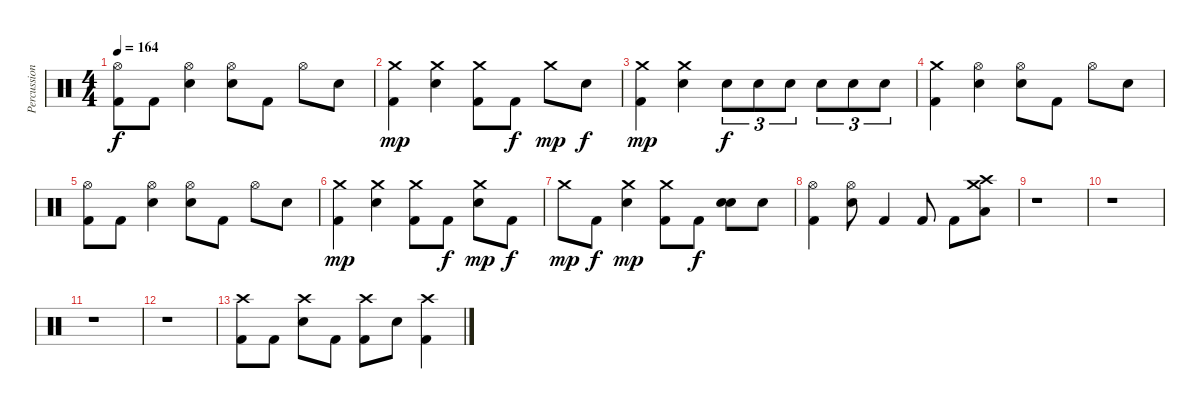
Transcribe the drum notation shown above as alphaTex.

\track ("Percussions" "Percussion") {instrument percussion}
\staff {score}
\articulation defaults
\ts (4 4)
\tempo 164
\clef neutral
\ks c
("Kick (hit) 2" "Hi-Hat (open)").8{dy f} "Kick (hit) 2".8 ("Snare (hit) 2" "Hi-Hat (open)").4 ("Snare (hit) 2" "Hi-Hat (open)").8 "Kick (hit) 2".8 "Hi-Hat (open)".8 "Snare (hit) 2".8 |
("Kick (hit) 2" "Crash medium (hit)").4{dy mp} ("Snare (hit) 2" "Crash medium (hit)").4 ("Kick (hit) 2" "Crash medium (hit)").8 "Kick (hit) 2".8{dy f} "Crash medium (hit)".8{dy mp} "Snare (hit) 2".8{dy f} |
("Kick (hit) 2" "Crash medium (hit)").4{dy mp} ("Snare (hit) 2" "Crash medium (hit)").4 "Snare (hit) 2".8{tu (3 2) dy f} "Snare (hit) 2".8{tu (3 2)} "Snare (hit) 2".8{tu (3 2)} "Snare (hit) 2".8{tu (3 2)} "Snare (hit) 2".8{tu (3 2)} "Snare (hit) 2".8{tu (3 2)} |
("Kick (hit) 2" "Crash medium (hit)").4 ("Snare (hit) 2" "Hi-Hat (open)").4 ("Snare (hit) 2" "Hi-Hat (open)").8 "Kick (hit) 2".8 "Hi-Hat (open)".8 "Snare (hit) 2".8 |
("Kick (hit) 2" "Hi-Hat (open)").8 "Kick (hit) 2".8 ("Snare (hit) 2" "Hi-Hat (open)").4 ("Snare (hit) 2" "Hi-Hat (open)").8 "Kick (hit) 2".8 "Hi-Hat (open)".8 "Snare (hit) 2".8 |
("Kick (hit) 2" "Crash medium (hit)").4{dy mp} ("Snare (hit) 2" "Crash medium (hit)").4 ("Kick (hit) 2" "Crash medium (hit)").8 "Kick (hit) 2".8{dy f} ("Snare (hit) 2" "Crash medium (hit)").8{dy mp} "Kick (hit) 2".8{dy f} |
"Crash medium (hit)".8{dy mp} "Kick (hit) 2".8{dy f} ("Snare (hit) 2" "Crash medium (hit)").4{dy mp} ("Kick (hit) 2" "Crash medium (hit)").8 "Kick (hit) 2".8{dy f} ("Snare (hit) 2" "Snare (hit)").8 "Snare (hit) 2".8 |
("Kick (hit) 2" "Hi-Hat (open)").4 ("Snare (hit) 2" "Hi-Hat (open)").8 "Kick (hit) 2".4 "Kick (hit) 2".8 "Kick (hit) 2".8 ("Low Tom (hit)" "Crash medium (hit)" "Crash high (hit)").8 |
r.1 |
r.1 |
r.1 |
r.1 |
("Kick (hit) 2" "Crash high (hit)").8 "Kick (hit) 2".8 ("Snare (hit) 2" "Crash high (hit)").8 "Kick (hit) 2".8 ("Kick (hit) 2" "Crash high (hit)").8 "Snare (hit) 2".8 ("Kick (hit) 2" "Crash high (hit)").4
